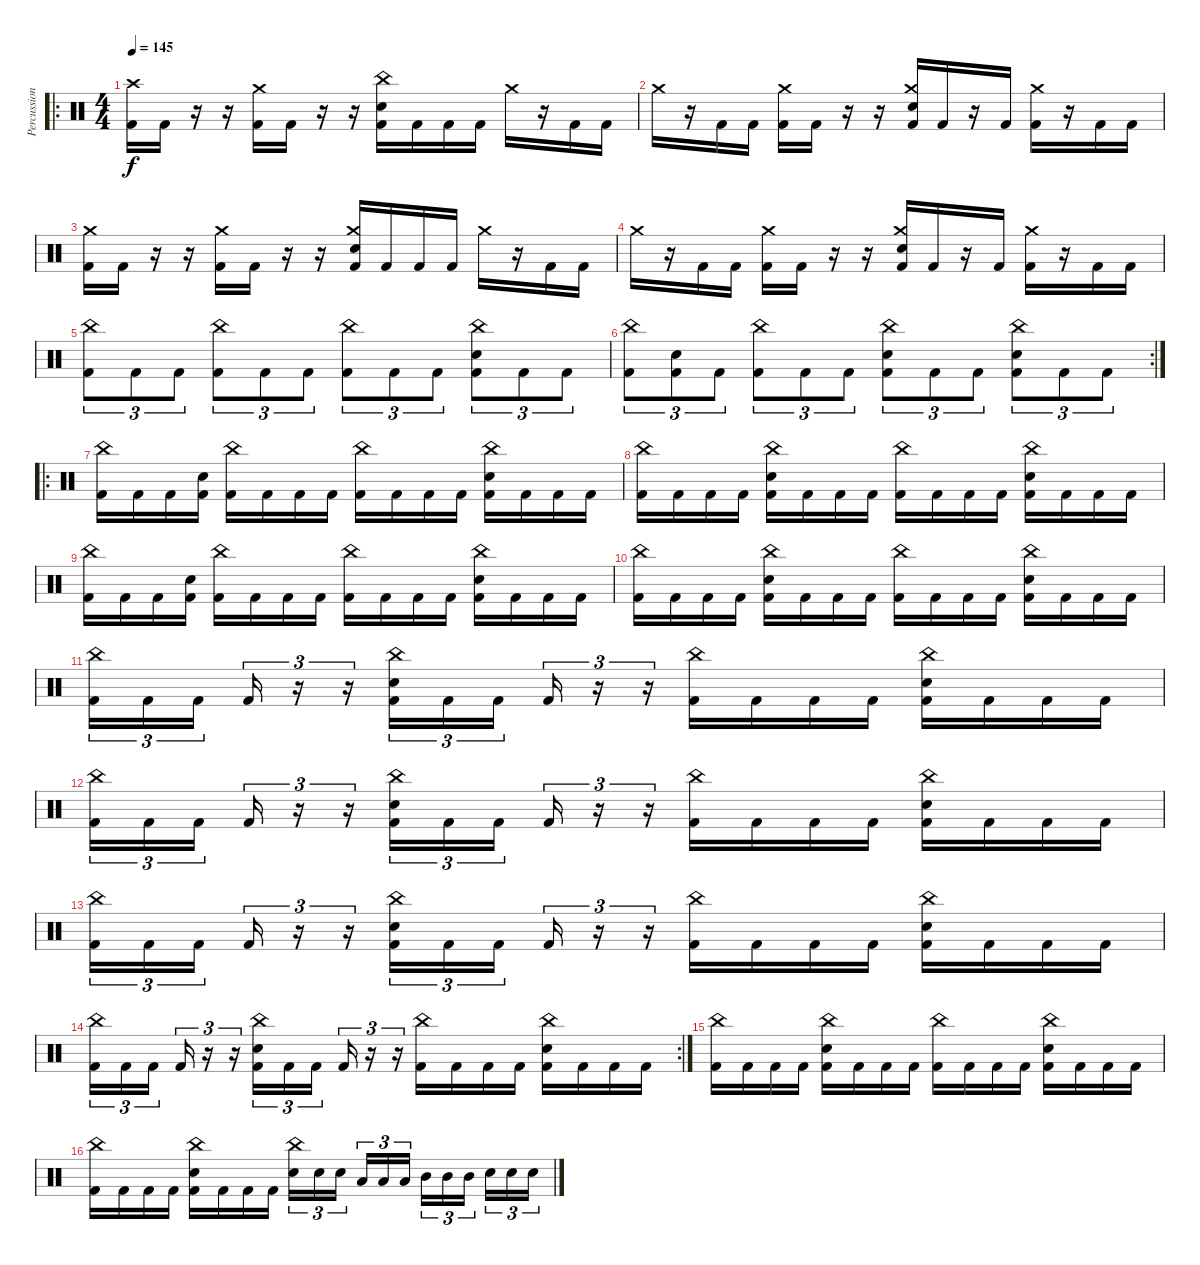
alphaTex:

\track ("Percussion" "Percussion") {instrument percussion}
\staff {score}
\articulation defaults
\ro
\ts (4 4)
\tempo 145
\clef neutral
\ks c
("Kick (hit) 2" "Crash high (hit)").16{dy f} "Kick (hit) 2".16 r.16 r.16 ("Kick (hit) 2" "Crash medium (hit)").16 "Kick (hit) 2".16 r.16 r.16 ("Kick (hit) 2" "Electric Snare (hit)" "China (hit)").16 "Kick (hit) 2".16 "Kick (hit) 2".16 "Kick (hit) 2".16 "Crash medium (hit)".16 r.16 "Kick (hit) 2".16 "Kick (hit) 2".16 |
"Crash medium (hit)".16 r.16 "Kick (hit) 2".16 "Kick (hit) 2".16 ("Kick (hit) 2" "Crash medium (hit)").16 "Kick (hit) 2".16 r.16 r.16 ("Kick (hit) 2" "Electric Snare (hit)" "Crash medium (hit)").16 "Kick (hit) 2".16 r.16 "Kick (hit) 2".16 ("Kick (hit) 2" "Crash medium (hit)").16 r.16 "Kick (hit) 2".16 "Kick (hit) 2".16 |
("Kick (hit) 2" "Crash medium (hit)").16 "Kick (hit) 2".16 r.16 r.16 ("Kick (hit) 2" "Crash medium (hit)").16 "Kick (hit) 2".16 r.16 r.16 ("Kick (hit) 2" "Electric Snare (hit)" "Crash medium (hit)").16 "Kick (hit) 2".16 "Kick (hit) 2".16 "Kick (hit) 2".16 "Crash medium (hit)".16 r.16 "Kick (hit) 2".16 "Kick (hit) 2".16 |
"Crash medium (hit)".16 r.16 "Kick (hit) 2".16 "Kick (hit) 2".16 ("Kick (hit) 2" "Crash medium (hit)").16 "Kick (hit) 2".16 r.16 r.16 ("Kick (hit) 2" "Electric Snare (hit)" "Crash medium (hit)").16 "Kick (hit) 2".16 r.16 "Kick (hit) 2".16 ("Kick (hit) 2" "Crash medium (hit)").16 r.16 "Kick (hit) 2".16 "Kick (hit) 2".16 |
("Kick (hit) 2" "China (hit)").8{tu (3 2)} "Kick (hit) 2".8{tu (3 2)} "Kick (hit) 2".8{tu (3 2)} ("Kick (hit) 2" "China (hit)").8{tu (3 2)} "Kick (hit) 2".8{tu (3 2)} "Kick (hit) 2".8{tu (3 2)} ("Kick (hit) 2" "China (hit)").8{tu (3 2)} "Kick (hit) 2".8{tu (3 2)} "Kick (hit) 2".8{tu (3 2)} ("Kick (hit) 2" "Electric Snare (hit)" "China (hit)").8{tu (3 2)} "Kick (hit) 2".8{tu (3 2)} "Kick (hit) 2".8{tu (3 2)} |
\rc 2
("Kick (hit) 2" "China (hit)").8{tu (3 2)} ("Kick (hit) 2" "Electric Snare (hit)").8{tu (3 2)} "Kick (hit) 2".8{tu (3 2)} ("Kick (hit) 2" "China (hit)").8{tu (3 2)} "Kick (hit) 2".8{tu (3 2)} "Kick (hit) 2".8{tu (3 2)} ("Kick (hit) 2" "Electric Snare (hit)" "China (hit)").8{tu (3 2)} "Kick (hit) 2".8{tu (3 2)} "Kick (hit) 2".8{tu (3 2)} ("Kick (hit) 2" "Electric Snare (hit)" "China (hit)").8{tu (3 2)} "Kick (hit) 2".8{tu (3 2)} "Kick (hit) 2".8{tu (3 2)} |
\ro
("China (hit)" "Kick (hit) 2").16 "Kick (hit) 2".16 "Kick (hit) 2".16 ("Electric Snare (hit)" "Kick (hit) 2").16 ("China (hit)" "Kick (hit) 2").16 "Kick (hit) 2".16 "Kick (hit) 2".16 "Kick (hit) 2".16 ("China (hit)" "Kick (hit) 2").16 "Kick (hit) 2".16 "Kick (hit) 2".16 "Kick (hit) 2".16 ("China (hit)" "Electric Snare (hit)" "Kick (hit) 2").16 "Kick (hit) 2".16 "Kick (hit) 2".16 "Kick (hit) 2".16 |
("China (hit)" "Kick (hit) 2").16 "Kick (hit) 2".16 "Kick (hit) 2".16 "Kick (hit) 2".16 ("China (hit)" "Electric Snare (hit)" "Kick (hit) 2").16 "Kick (hit) 2".16 "Kick (hit) 2".16 "Kick (hit) 2".16 ("China (hit)" "Kick (hit) 2").16 "Kick (hit) 2".16 "Kick (hit) 2".16 "Kick (hit) 2".16 ("China (hit)" "Electric Snare (hit)" "Kick (hit) 2").16 "Kick (hit) 2".16 "Kick (hit) 2".16 "Kick (hit) 2".16 |
("China (hit)" "Kick (hit) 2").16 "Kick (hit) 2".16 "Kick (hit) 2".16 ("Electric Snare (hit)" "Kick (hit) 2").16 ("China (hit)" "Kick (hit) 2").16 "Kick (hit) 2".16 "Kick (hit) 2".16 "Kick (hit) 2".16 ("China (hit)" "Kick (hit) 2").16 "Kick (hit) 2".16 "Kick (hit) 2".16 "Kick (hit) 2".16 ("China (hit)" "Electric Snare (hit)" "Kick (hit) 2").16 "Kick (hit) 2".16 "Kick (hit) 2".16 "Kick (hit) 2".16 |
("China (hit)" "Kick (hit) 2").16 "Kick (hit) 2".16 "Kick (hit) 2".16 "Kick (hit) 2".16 ("China (hit)" "Electric Snare (hit)" "Kick (hit) 2").16 "Kick (hit) 2".16 "Kick (hit) 2".16 "Kick (hit) 2".16 ("China (hit)" "Kick (hit) 2").16 "Kick (hit) 2".16 "Kick (hit) 2".16 "Kick (hit) 2".16 ("China (hit)" "Electric Snare (hit)" "Kick (hit) 2").16 "Kick (hit) 2".16 "Kick (hit) 2".16 "Kick (hit) 2".16 |
("China (hit)" "Kick (hit) 2").16{tu (3 2)} "Kick (hit) 2".16{tu (3 2)} "Kick (hit) 2".16{tu (3 2) beam splitsecondary} "Kick (hit) 2".16{tu (3 2)} r.16{tu (3 2)} r.16{tu (3 2)} ("China (hit)" "Electric Snare (hit)" "Kick (hit) 2").16{tu (3 2)} "Kick (hit) 2".16{tu (3 2)} "Kick (hit) 2".16{tu (3 2) beam splitsecondary} "Kick (hit) 2".16{tu (3 2)} r.16{tu (3 2)} r.16{tu (3 2)} ("China (hit)" "Kick (hit) 2").16 "Kick (hit) 2".16 "Kick (hit) 2".16 "Kick (hit) 2".16 ("China (hit)" "Electric Snare (hit)" "Kick (hit) 2").16 "Kick (hit) 2".16 "Kick (hit) 2".16 "Kick (hit) 2".16 |
("China (hit)" "Kick (hit) 2").16{tu (3 2)} "Kick (hit) 2".16{tu (3 2)} "Kick (hit) 2".16{tu (3 2) beam splitsecondary} "Kick (hit) 2".16{tu (3 2)} r.16{tu (3 2)} r.16{tu (3 2)} ("China (hit)" "Electric Snare (hit)" "Kick (hit) 2").16{tu (3 2)} "Kick (hit) 2".16{tu (3 2)} "Kick (hit) 2".16{tu (3 2) beam splitsecondary} "Kick (hit) 2".16{tu (3 2)} r.16{tu (3 2)} r.16{tu (3 2)} ("China (hit)" "Kick (hit) 2").16 "Kick (hit) 2".16 "Kick (hit) 2".16 "Kick (hit) 2".16 ("China (hit)" "Electric Snare (hit)" "Kick (hit) 2").16 "Kick (hit) 2".16 "Kick (hit) 2".16 "Kick (hit) 2".16 |
("China (hit)" "Kick (hit) 2").16{tu (3 2)} "Kick (hit) 2".16{tu (3 2)} "Kick (hit) 2".16{tu (3 2) beam splitsecondary} "Kick (hit) 2".16{tu (3 2)} r.16{tu (3 2)} r.16{tu (3 2)} ("China (hit)" "Electric Snare (hit)" "Kick (hit) 2").16{tu (3 2)} "Kick (hit) 2".16{tu (3 2)} "Kick (hit) 2".16{tu (3 2) beam splitsecondary} "Kick (hit) 2".16{tu (3 2)} r.16{tu (3 2)} r.16{tu (3 2)} ("China (hit)" "Kick (hit) 2").16 "Kick (hit) 2".16 "Kick (hit) 2".16 "Kick (hit) 2".16 ("China (hit)" "Electric Snare (hit)" "Kick (hit) 2").16 "Kick (hit) 2".16 "Kick (hit) 2".16 "Kick (hit) 2".16 |
\rc 2
("China (hit)" "Kick (hit) 2").16{tu (3 2)} "Kick (hit) 2".16{tu (3 2)} "Kick (hit) 2".16{tu (3 2) beam splitsecondary} "Kick (hit) 2".16{tu (3 2)} r.16{tu (3 2)} r.16{tu (3 2)} ("China (hit)" "Electric Snare (hit)" "Kick (hit) 2").16{tu (3 2)} "Kick (hit) 2".16{tu (3 2)} "Kick (hit) 2".16{tu (3 2) beam splitsecondary} "Kick (hit) 2".16{tu (3 2)} r.16{tu (3 2)} r.16{tu (3 2)} ("China (hit)" "Kick (hit) 2").16 "Kick (hit) 2".16 "Kick (hit) 2".16 "Kick (hit) 2".16 ("China (hit)" "Electric Snare (hit)" "Kick (hit) 2").16 "Kick (hit) 2".16 "Kick (hit) 2".16 "Kick (hit) 2".16 |
("China (hit)" "Kick (hit) 2").16 "Kick (hit) 2".16 "Kick (hit) 2".16 "Kick (hit) 2".16 ("China (hit)" "Electric Snare (hit)" "Kick (hit) 2").16 "Kick (hit) 2".16 "Kick (hit) 2".16 "Kick (hit) 2".16 ("China (hit)" "Kick (hit) 2").16 "Kick (hit) 2".16 "Kick (hit) 2".16 "Kick (hit) 2".16 ("China (hit)" "Electric Snare (hit)" "Kick (hit) 2").16 "Kick (hit) 2".16 "Kick (hit) 2".16 "Kick (hit) 2".16 |
("China (hit)" "Kick (hit) 2").16 "Kick (hit) 2".16 "Kick (hit) 2".16 "Kick (hit) 2".16 ("China (hit)" "Electric Snare (hit)" "Kick (hit) 2").16 "Kick (hit) 2".16 "Kick (hit) 2".16 "Kick (hit) 2".16 ("China (hit)" "Electric Snare (hit)").16{tu (3 2)} "Electric Snare (hit)".16{tu (3 2)} "Electric Snare (hit)".16{tu (3 2) beam splitsecondary} "Low Tom (hit)".16{tu (3 2)} "Low Tom (hit)".16{tu (3 2)} "Low Tom (hit)".16{tu (3 2)} "Mid Tom (hit)".16{tu (3 2)} "Mid Tom (hit)".16{tu (3 2)} "Mid Tom (hit)".16{tu (3 2) beam splitsecondary} "Electric Snare (hit)".16{tu (3 2)} "Electric Snare (hit)".16{tu (3 2)} "Electric Snare (hit)".16{tu (3 2)}
